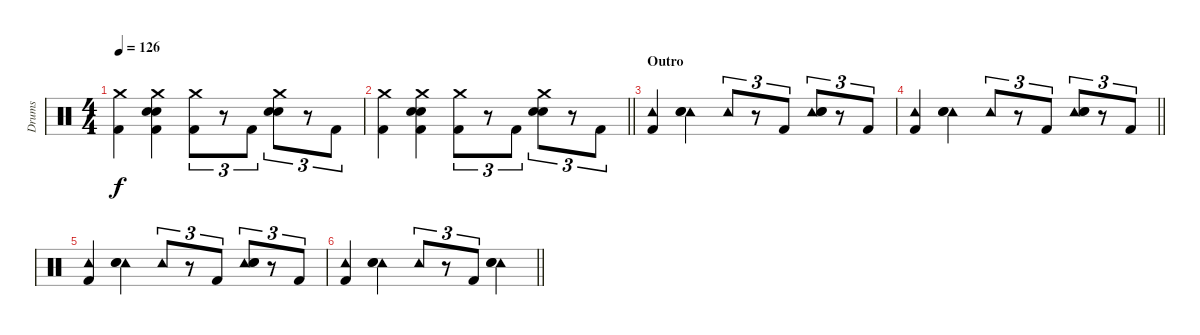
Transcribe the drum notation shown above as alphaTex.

\track ("Drums" "Drums") {instrument percussion}
\staff {score}
\articulation defaults
\ts (4 4)
\tempo 126
\clef neutral
\ks c
("Crash medium (hit)" "Kick (hit) 2").4{dy f} ("Crash medium (hit)" "Electric Snare (hit)" "Hand Clap (hit)" "Kick (hit) 2").4 ("Crash medium (hit)" "Kick (hit) 2").8{tu (3 2)} r.8{tu (3 2)} "Kick (hit) 2".8{tu (3 2)} ("Crash medium (hit)" "Electric Snare (hit)" "Hand Clap (hit)").8{tu (3 2)} r.8{tu (3 2)} "Kick (hit) 2".8{tu (3 2)} |
\barLineRight lightlight
("Crash medium (hit)" "Kick (hit) 2").4 ("Crash medium (hit)" "Electric Snare (hit)" "Hand Clap (hit)" "Kick (hit) 2").4 ("Crash medium (hit)" "Kick (hit) 2").8{tu (3 2)} r.8{tu (3 2)} "Kick (hit) 2".8{tu (3 2)} ("Crash medium (hit)" "Electric Snare (hit)" "Hand Clap (hit)").8{tu (3 2)} r.8{tu (3 2)} "Kick (hit) 2".8{tu (3 2)} |
\section ("" "Outro")
("Tambourine (hit)" "Kick (hit) 2").4 ("Tambourine (hit)" "Electric Snare (hit)" "Hand Clap (hit)").4 "Tambourine (hit)".8{tu (3 2)} r.8{tu (3 2)} "Kick (hit) 2".8{tu (3 2)} ("Tambourine (hit)" "Electric Snare (hit)" "Hand Clap (hit)").8{tu (3 2)} r.8{tu (3 2)} "Kick (hit) 2".8{tu (3 2)} |
\barLineRight lightlight
("Tambourine (hit)" "Kick (hit) 2").4 ("Tambourine (hit)" "Electric Snare (hit)" "Hand Clap (hit)").4 "Tambourine (hit)".8{tu (3 2)} r.8{tu (3 2)} "Kick (hit) 2".8{tu (3 2)} ("Tambourine (hit)" "Electric Snare (hit)" "Hand Clap (hit)").8{tu (3 2)} r.8{tu (3 2)} "Kick (hit) 2".8{tu (3 2)} |
("Tambourine (hit)" "Kick (hit) 2").4 ("Tambourine (hit)" "Electric Snare (hit)" "Hand Clap (hit)").4 "Tambourine (hit)".8{tu (3 2)} r.8{tu (3 2)} "Kick (hit) 2".8{tu (3 2)} ("Tambourine (hit)" "Electric Snare (hit)" "Hand Clap (hit)").8{tu (3 2)} r.8{tu (3 2)} "Kick (hit) 2".8{tu (3 2)} |
\barLineRight lightlight
("Tambourine (hit)" "Kick (hit) 2").4 ("Tambourine (hit)" "Electric Snare (hit)" "Hand Clap (hit)").4 "Tambourine (hit)".8{tu (3 2)} r.8{tu (3 2)} "Kick (hit) 2".8{tu (3 2)} ("Tambourine (hit)" "Electric Snare (hit)" "Hand Clap (hit)").4
